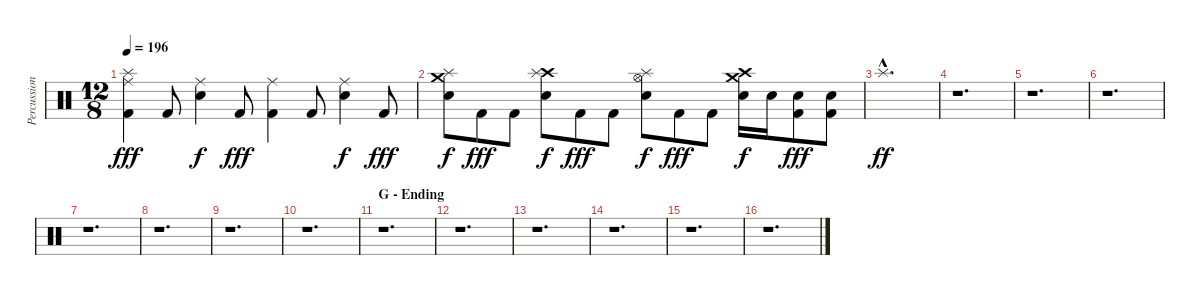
\track ("Percussion" "Percussion") {instrument percussion}
\staff {score}
\articulation defaults
\ts (12 8)
\tempo 196
\clef neutral
\ks c
("Splash (hit)" "Ride (middle)" "Kick (hit) 2").4{dy fff} "Kick (hit) 2".8 ("Ride (middle)" "Electric Snare (hit)").4{dy f} "Kick (hit) 2".8{dy fff} ("Ride (middle)" "Kick (hit) 2").4 "Kick (hit) 2".8 ("Ride (middle)" "Electric Snare (hit)").4{dy f} "Kick (hit) 2".8{dy fff} |
("Crash medium (hit)" "Splash (hit)" "Electric Snare (hit)").8{dy f} "Kick (hit) 2".8{dy fff} "Kick (hit) 2".8 ("Crash high (hit)" "Splash (hit)" "Electric Snare (hit)").8{dy f} "Kick (hit) 2".8{dy fff} "Kick (hit) 2".8 ("Hi-Hat (open)" "Splash (hit)" "Electric Snare (hit)").8{dy f} "Kick (hit) 2".8{dy fff} "Kick (hit) 2".8 ("Crash medium (hit)" "Crash high (hit)" "Electric Snare (hit)").16{dy f} "Electric Snare (hit)".16 ("Electric Snare (hit)" "Kick (hit) 2").8{dy fff} ("Electric Snare (hit)" "Kick (hit) 2").8 |
"Splash (hit)"{hac}.1{d dy ff} |
r.1{d} |
r.1{d} |
r.1{d} |
r.1{d} |
r.1{d} |
r.1{d} |
r.1{d} |
\section ("" "G - Ending")
r.1{d} |
r.1{d} |
r.1{d} |
r.1{d} |
r.1{d} |
r.1{d}
